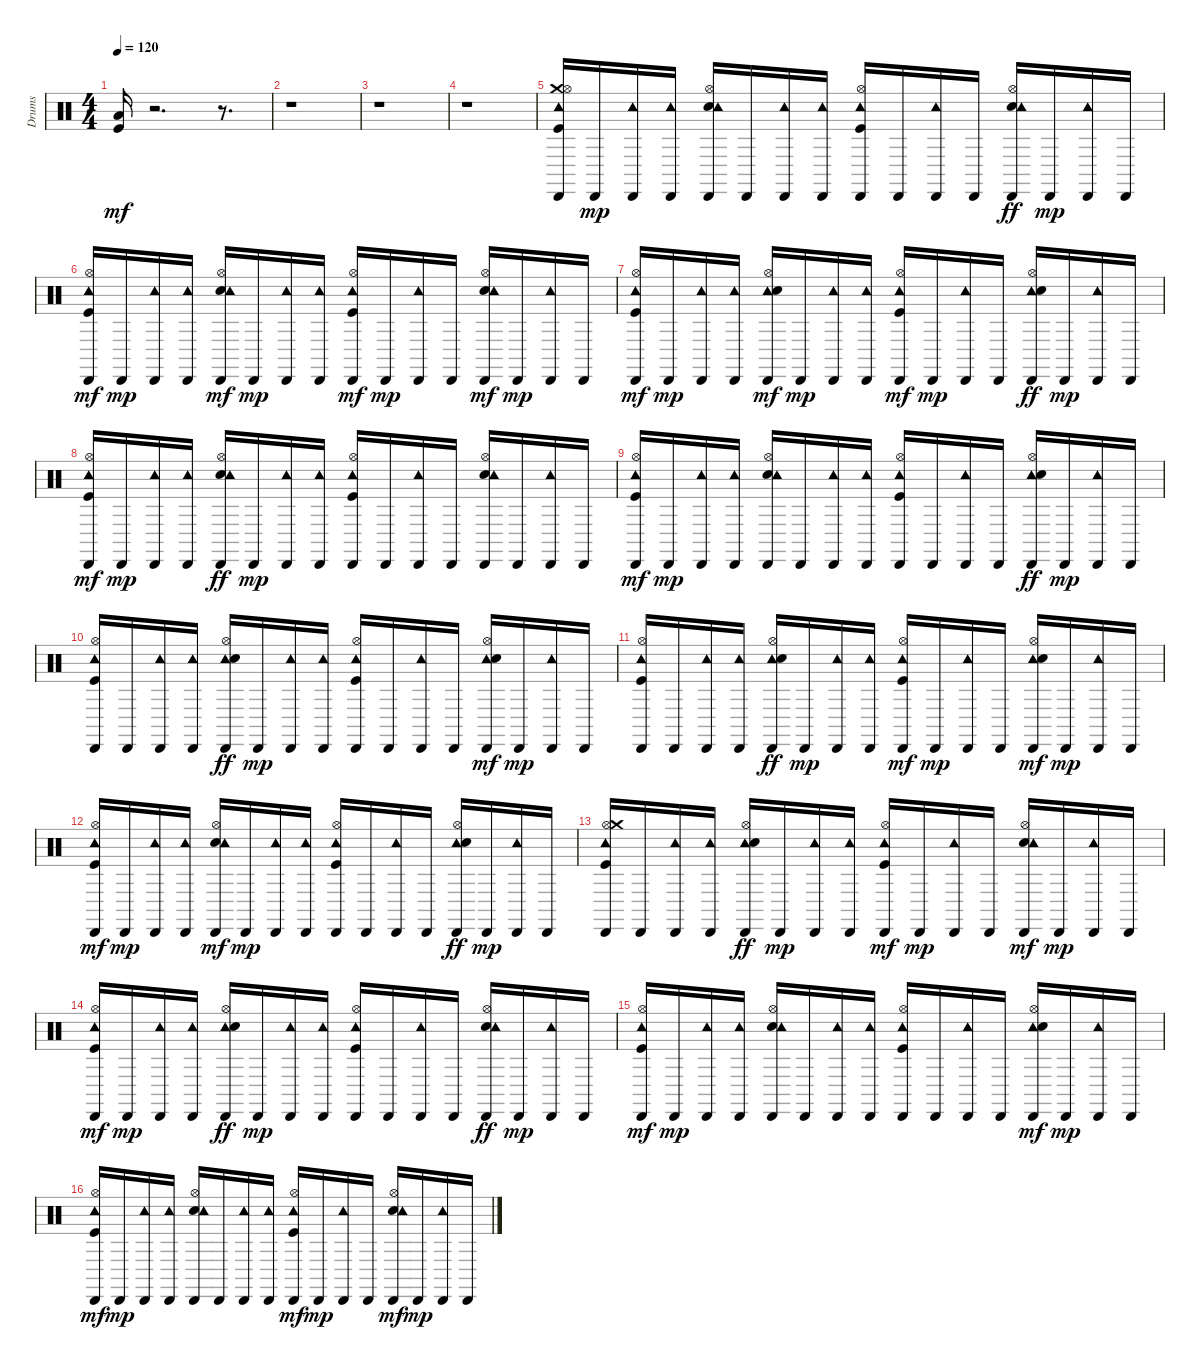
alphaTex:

\track ("Drums" "Drums") {instrument percussion}
\staff {score}
\articulation defaults
\ts (4 4)
\tempo 120
\clef neutral
\ks c
("Low Floor Tom (hit)" "Kick (hit)").16{dy mf} r.2{d} r.8{d} |
r.1 |
r.1 |
r.1 |
("Cabasa (hit)" "Crash medium (hit)" "Tambourine (hit)" "Hi-Hat (open)" "Kick (hit)").16 "Cabasa (hit)".16{dy mp} ("Tambourine (hit)" "Cabasa (hit)").16 ("Tambourine (hit)" "Cabasa (hit)").16 ("Electric Snare (hit)" "Hi-Hat (open)" "Tambourine (hit)" "Cabasa (hit)").16 "Cabasa (hit)".16 ("Cabasa (hit)" "Tambourine (hit)").16 ("Tambourine (hit)" "Cabasa (hit)").16 ("Hi-Hat (open)" "Cabasa (hit)" "Kick (hit)" "Tambourine (hit)").16 "Cabasa (hit)".16 ("Cabasa (hit)" "Tambourine (hit)").16 "Cabasa (hit)".16 ("Hi-Hat (open)" "Cabasa (hit)" "Electric Snare (hit)" "Tambourine (hit)").16{dy ff} "Cabasa (hit)".16{dy mp} ("Cabasa (hit)" "Tambourine (hit)").16 "Cabasa (hit)".16 |
("Cabasa (hit)" "Tambourine (hit)" "Kick (hit)" "Hi-Hat (open)").16{dy mf} "Cabasa (hit)".16{dy mp} ("Cabasa (hit)" "Tambourine (hit)").16 ("Tambourine (hit)" "Cabasa (hit)").16 ("Cabasa (hit)" "Electric Snare (hit)" "Hi-Hat (open)" "Tambourine (hit)").16{dy mf} "Cabasa (hit)".16{dy mp} ("Cabasa (hit)" "Tambourine (hit)").16 ("Cabasa (hit)" "Tambourine (hit)").16 ("Tambourine (hit)" "Cabasa (hit)" "Hi-Hat (open)" "Kick (hit)").16{dy mf} "Cabasa (hit)".16{dy mp} ("Tambourine (hit)" "Cabasa (hit)").16 "Cabasa (hit)".16 ("Electric Snare (hit)" "Cabasa (hit)" "Tambourine (hit)" "Hi-Hat (open)").16{dy mf} "Cabasa (hit)".16{dy mp} ("Cabasa (hit)" "Tambourine (hit)").16 "Cabasa (hit)".16 |
("Cabasa (hit)" "Tambourine (hit)" "Kick (hit)" "Hi-Hat (open)").16{dy mf} "Cabasa (hit)".16{dy mp} ("Cabasa (hit)" "Tambourine (hit)").16 ("Tambourine (hit)" "Cabasa (hit)").16 ("Tambourine (hit)" "Electric Snare (hit)" "Cabasa (hit)" "Hi-Hat (open)").16{dy mf} "Cabasa (hit)".16{dy mp} ("Tambourine (hit)" "Cabasa (hit)").16 ("Tambourine (hit)" "Cabasa (hit)").16 ("Tambourine (hit)" "Cabasa (hit)" "Hi-Hat (open)" "Kick (hit)").16{dy mf} "Cabasa (hit)".16{dy mp} ("Cabasa (hit)" "Tambourine (hit)").16 "Cabasa (hit)".16 ("Tambourine (hit)" "Hi-Hat (open)" "Cabasa (hit)" "Electric Snare (hit)").16{dy ff} "Cabasa (hit)".16{dy mp} ("Tambourine (hit)" "Cabasa (hit)").16 "Cabasa (hit)".16 |
("Cabasa (hit)" "Tambourine (hit)" "Hi-Hat (open)" "Kick (hit)").16{dy mf} "Cabasa (hit)".16{dy mp} ("Tambourine (hit)" "Cabasa (hit)").16 ("Cabasa (hit)" "Tambourine (hit)").16 ("Hi-Hat (open)" "Cabasa (hit)" "Electric Snare (hit)" "Tambourine (hit)").16{dy ff} "Cabasa (hit)".16{dy mp} ("Tambourine (hit)" "Cabasa (hit)").16 ("Cabasa (hit)" "Tambourine (hit)").16 ("Hi-Hat (open)" "Tambourine (hit)" "Kick (hit)" "Cabasa (hit)").16 "Cabasa (hit)".16 ("Tambourine (hit)" "Cabasa (hit)").16 "Cabasa (hit)".16 ("Hi-Hat (open)" "Electric Snare (hit)" "Tambourine (hit)" "Cabasa (hit)").16 "Cabasa (hit)".16 ("Cabasa (hit)" "Tambourine (hit)").16 "Cabasa (hit)".16 |
("Cabasa (hit)" "Hi-Hat (open)" "Kick (hit)" "Tambourine (hit)").16{dy mf} "Cabasa (hit)".16{dy mp} ("Cabasa (hit)" "Tambourine (hit)").16 ("Tambourine (hit)" "Cabasa (hit)").16 ("Electric Snare (hit)" "Hi-Hat (open)" "Cabasa (hit)" "Tambourine (hit)").16 "Cabasa (hit)".16 ("Tambourine (hit)" "Cabasa (hit)").16 ("Cabasa (hit)" "Tambourine (hit)").16 ("Hi-Hat (open)" "Cabasa (hit)" "Tambourine (hit)" "Kick (hit)").16 "Cabasa (hit)".16 ("Cabasa (hit)" "Tambourine (hit)").16 "Cabasa (hit)".16 ("Cabasa (hit)" "Tambourine (hit)" "Hi-Hat (open)" "Electric Snare (hit)").16{dy ff} "Cabasa (hit)".16{dy mp} ("Tambourine (hit)" "Cabasa (hit)").16 "Cabasa (hit)".16 |
("Hi-Hat (open)" "Kick (hit)" "Cabasa (hit)" "Tambourine (hit)").16 "Cabasa (hit)".16 ("Cabasa (hit)" "Tambourine (hit)").16 ("Cabasa (hit)" "Tambourine (hit)").16 ("Hi-Hat (open)" "Tambourine (hit)" "Cabasa (hit)" "Electric Snare (hit)").16{dy ff} "Cabasa (hit)".16{dy mp} ("Cabasa (hit)" "Tambourine (hit)").16 ("Tambourine (hit)" "Cabasa (hit)").16 ("Hi-Hat (open)" "Cabasa (hit)" "Tambourine (hit)" "Kick (hit)").16 "Cabasa (hit)".16 ("Cabasa (hit)" "Tambourine (hit)").16 "Cabasa (hit)".16 ("Cabasa (hit)" "Tambourine (hit)" "Electric Snare (hit)" "Hi-Hat (open)").16{dy mf} "Cabasa (hit)".16{dy mp} ("Cabasa (hit)" "Tambourine (hit)").16 "Cabasa (hit)".16 |
("Tambourine (hit)" "Kick (hit)" "Hi-Hat (open)" "Cabasa (hit)").16 "Cabasa (hit)".16 ("Tambourine (hit)" "Cabasa (hit)").16 ("Cabasa (hit)" "Tambourine (hit)").16 ("Tambourine (hit)" "Cabasa (hit)" "Hi-Hat (open)" "Electric Snare (hit)").16{dy ff} "Cabasa (hit)".16{dy mp} ("Tambourine (hit)" "Cabasa (hit)").16 ("Tambourine (hit)" "Cabasa (hit)").16 ("Tambourine (hit)" "Cabasa (hit)" "Hi-Hat (open)" "Kick (hit)").16{dy mf} "Cabasa (hit)".16{dy mp} ("Cabasa (hit)" "Tambourine (hit)").16 "Cabasa (hit)".16 ("Cabasa (hit)" "Tambourine (hit)" "Electric Snare (hit)" "Hi-Hat (open)").16{dy mf} "Cabasa (hit)".16{dy mp} ("Tambourine (hit)" "Cabasa (hit)").16 "Cabasa (hit)".16 |
("Kick (hit)" "Cabasa (hit)" "Tambourine (hit)" "Hi-Hat (open)").16{dy mf} "Cabasa (hit)".16{dy mp} ("Tambourine (hit)" "Cabasa (hit)").16 ("Tambourine (hit)" "Cabasa (hit)").16 ("Cabasa (hit)" "Electric Snare (hit)" "Hi-Hat (open)" "Tambourine (hit)").16{dy mf} "Cabasa (hit)".16{dy mp} ("Cabasa (hit)" "Tambourine (hit)").16 ("Tambourine (hit)" "Cabasa (hit)").16 ("Hi-Hat (open)" "Kick (hit)" "Cabasa (hit)" "Tambourine (hit)").16 "Cabasa (hit)".16 ("Tambourine (hit)" "Cabasa (hit)").16 "Cabasa (hit)".16 ("Hi-Hat (open)" "Cabasa (hit)" "Tambourine (hit)" "Electric Snare (hit)").16{dy ff} "Cabasa (hit)".16{dy mp} ("Tambourine (hit)" "Cabasa (hit)").16 "Cabasa (hit)".16 |
("Hi-Hat (open)" "Cabasa (hit)" "Kick (hit)" "Tambourine (hit)" "Crash medium (hit)").16 "Cabasa (hit)".16 ("Tambourine (hit)" "Cabasa (hit)").16 ("Cabasa (hit)" "Tambourine (hit)").16 ("Cabasa (hit)" "Tambourine (hit)" "Hi-Hat (open)" "Electric Snare (hit)").16{dy ff} "Cabasa (hit)".16{dy mp} ("Cabasa (hit)" "Tambourine (hit)").16 ("Cabasa (hit)" "Tambourine (hit)").16 ("Cabasa (hit)" "Hi-Hat (open)" "Tambourine (hit)" "Kick (hit)").16{dy mf} "Cabasa (hit)".16{dy mp} ("Tambourine (hit)" "Cabasa (hit)").16 "Cabasa (hit)".16 ("Cabasa (hit)" "Electric Snare (hit)" "Hi-Hat (open)" "Tambourine (hit)").16{dy mf} "Cabasa (hit)".16{dy mp} ("Tambourine (hit)" "Cabasa (hit)").16 "Cabasa (hit)".16 |
("Cabasa (hit)" "Tambourine (hit)" "Hi-Hat (open)" "Kick (hit)").16{dy mf} "Cabasa (hit)".16{dy mp} ("Cabasa (hit)" "Tambourine (hit)").16 ("Tambourine (hit)" "Cabasa (hit)").16 ("Tambourine (hit)" "Cabasa (hit)" "Hi-Hat (open)" "Electric Snare (hit)").16{dy ff} "Cabasa (hit)".16{dy mp} ("Cabasa (hit)" "Tambourine (hit)").16 ("Cabasa (hit)" "Tambourine (hit)").16 ("Hi-Hat (open)" "Tambourine (hit)" "Kick (hit)" "Cabasa (hit)").16 "Cabasa (hit)".16 ("Cabasa (hit)" "Tambourine (hit)").16 "Cabasa (hit)".16 ("Cabasa (hit)" "Hi-Hat (open)" "Electric Snare (hit)" "Tambourine (hit)").16{dy ff} "Cabasa (hit)".16{dy mp} ("Tambourine (hit)" "Cabasa (hit)").16 "Cabasa (hit)".16 |
("Cabasa (hit)" "Hi-Hat (open)" "Tambourine (hit)" "Kick (hit)").16{dy mf} "Cabasa (hit)".16{dy mp} ("Tambourine (hit)" "Cabasa (hit)").16 ("Cabasa (hit)" "Tambourine (hit)").16 ("Hi-Hat (open)" "Electric Snare (hit)" "Cabasa (hit)" "Tambourine (hit)").16 "Cabasa (hit)".16 ("Cabasa (hit)" "Tambourine (hit)").16 ("Cabasa (hit)" "Tambourine (hit)").16 ("Hi-Hat (open)" "Cabasa (hit)" "Tambourine (hit)" "Kick (hit)").16 "Cabasa (hit)".16 ("Cabasa (hit)" "Tambourine (hit)").16 "Cabasa (hit)".16 ("Tambourine (hit)" "Electric Snare (hit)" "Cabasa (hit)" "Hi-Hat (open)").16{dy mf} "Cabasa (hit)".16{dy mp} ("Cabasa (hit)" "Tambourine (hit)").16 "Cabasa (hit)".16 |
("Cabasa (hit)" "Kick (hit)" "Hi-Hat (open)" "Tambourine (hit)").16{dy mf} "Cabasa (hit)".16{dy mp} ("Cabasa (hit)" "Tambourine (hit)").16 ("Tambourine (hit)" "Cabasa (hit)").16 ("Hi-Hat (open)" "Electric Snare (hit)" "Cabasa (hit)" "Tambourine (hit)").16 "Cabasa (hit)".16 ("Cabasa (hit)" "Tambourine (hit)").16 ("Cabasa (hit)" "Tambourine (hit)").16 ("Cabasa (hit)" "Tambourine (hit)" "Kick (hit)" "Hi-Hat (open)").16{dy mf} "Cabasa (hit)".16{dy mp} ("Tambourine (hit)" "Cabasa (hit)").16 "Cabasa (hit)".16 ("Electric Snare (hit)" "Cabasa (hit)" "Tambourine (hit)" "Hi-Hat (open)").16{dy mf} "Cabasa (hit)".16{dy mp} ("Tambourine (hit)" "Cabasa (hit)").16 "Cabasa (hit)".16
